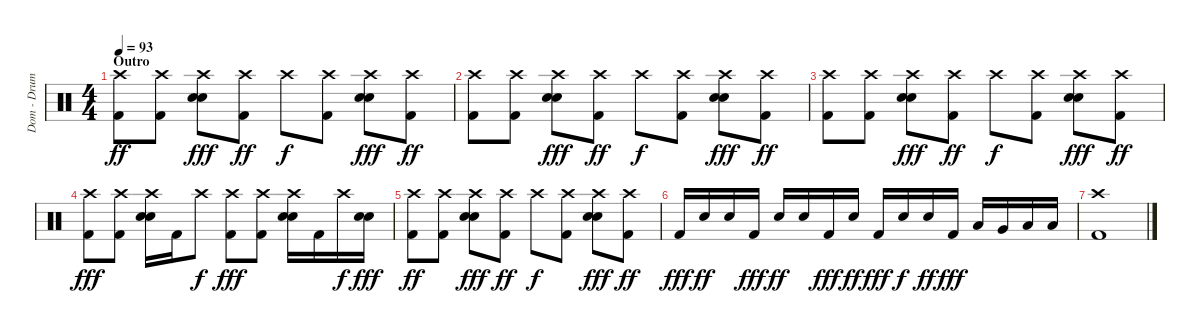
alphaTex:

\track ("Dom - Drums" "Dom - Drum") {instrument percussion}
\staff {score}
\articulation defaults
\ts (4 4)
\section ("" "Outro")
\tempo 93
\clef neutral
\ks c
("Crash high (hit)" "Kick (hit) 2").8{dy ff} ("Crash high (hit)" "Kick (hit) 2").8 ("Crash high (hit)" "Electric Snare (hit)" "Snare (hit) 2").8{dy fff} ("Crash high (hit)" "Kick (hit) 2").8{dy ff} "Crash high (hit)".8{dy f} ("Crash high (hit)" "Kick (hit) 2").8 ("Crash high (hit)" "Electric Snare (hit)" "Snare (hit) 2").8{dy fff} ("Crash high (hit)" "Kick (hit) 2").8{dy ff} |
("Crash high (hit)" "Kick (hit) 2").8 ("Crash high (hit)" "Kick (hit) 2").8 ("Crash high (hit)" "Electric Snare (hit)" "Snare (hit) 2").8{dy fff} ("Crash high (hit)" "Kick (hit) 2").8{dy ff} "Crash high (hit)".8{dy f} ("Crash high (hit)" "Kick (hit) 2").8 ("Crash high (hit)" "Electric Snare (hit)" "Snare (hit) 2").8{dy fff} ("Crash high (hit)" "Kick (hit) 2").8{dy ff} |
("Crash high (hit)" "Kick (hit) 2").8 ("Crash high (hit)" "Kick (hit) 2").8 ("Crash high (hit)" "Electric Snare (hit)" "Snare (hit) 2").8{dy fff} ("Crash high (hit)" "Kick (hit) 2").8{dy ff} "Crash high (hit)".8{dy f} ("Crash high (hit)" "Kick (hit) 2").8 ("Crash high (hit)" "Electric Snare (hit)" "Snare (hit) 2").8{dy fff} ("Crash high (hit)" "Kick (hit) 2").8{dy ff} |
("Crash high (hit)" "Kick (hit) 2").8{dy fff} ("Crash high (hit)" "Kick (hit) 2").8 ("Crash high (hit)" "Electric Snare (hit)" "Snare (hit) 2").16 "Kick (hit) 2".16 "Crash high (hit)".8{dy f} ("Crash high (hit)" "Kick (hit) 2").8{dy fff} ("Crash high (hit)" "Kick (hit) 2").8 ("Crash high (hit)" "Electric Snare (hit)" "Snare (hit) 2").16 "Kick (hit) 2".16 "Crash high (hit)".16{dy f} ("Electric Snare (hit)" "Snare (hit) 2").16{dy fff} |
("Crash high (hit)" "Kick (hit) 2").8{dy ff} ("Crash high (hit)" "Kick (hit) 2").8 ("Crash high (hit)" "Electric Snare (hit)" "Snare (hit) 2").8{dy fff} ("Crash high (hit)" "Kick (hit) 2").8{dy ff} "Crash high (hit)".8{dy f} ("Crash high (hit)" "Kick (hit) 2").8 ("Crash high (hit)" "Electric Snare (hit)" "Snare (hit) 2").8{dy fff} ("Crash high (hit)" "Kick (hit) 2").8{dy ff} |
"Kick (hit) 2".16{dy fff} "Snare (hit) 2".16{dy ff} "Snare (hit) 2".16 "Kick (hit) 2".16{dy fff} "Snare (hit) 2".16{dy ff} "Snare (hit) 2".16 "Kick (hit) 2".16{dy fff} "Snare (hit) 2".16{dy ff} "Kick (hit) 2".16{dy fff} "Snare (hit) 2".16{dy f} "Snare (hit) 2".16{dy ff} "Kick (hit) 2".16{dy fff} "Low Tom (hit)".16 "Very Low Tom (hit)".16 "Low Floor Tom (hit)".16 "Low Floor Tom (hit)".16 |
("Crash high (hit)" "Kick (hit) 2").1
